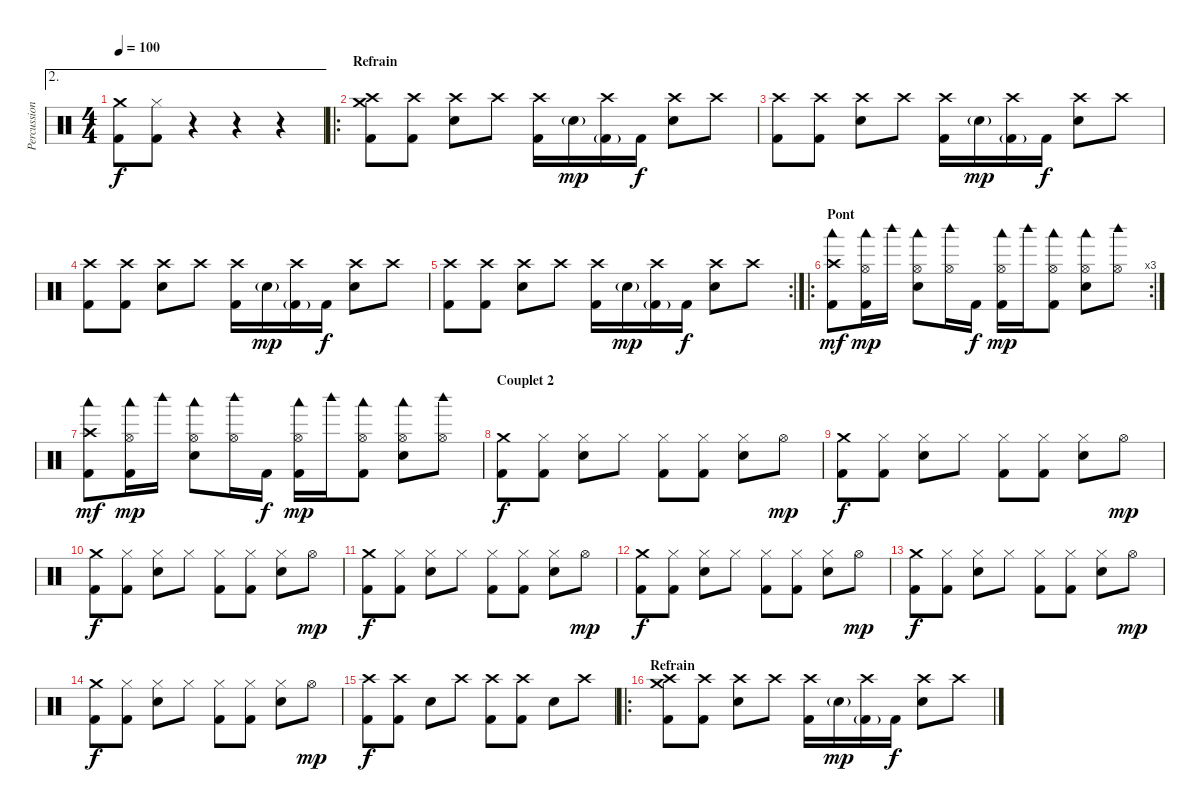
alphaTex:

\track ("Percussions" "Percussion") {instrument percussion}
\staff {score}
\articulation defaults
\ae 2
\ts (4 4)
\tempo 100
\clef neutral
\ks c
("Crash medium (hit)" "Kick (hit) 2").8{dy f} ("Hi-Hat (closed)" "Kick (hit) 2").8 r.4 r.4 r.4 |
\ro
\section ("" "Refrain")
("Crash high (hit)" "Crash medium (hit)" "Kick (hit) 2").8 ("Crash high (hit)" "Kick (hit) 2").8 ("Crash high (hit)" "Electric Snare (hit)").8 "Crash high (hit)".8 ("Crash high (hit)" "Kick (hit) 2").16 "Electric Snare (hit)"{g}.16{dy mp} ("Crash high (hit)" "Kick (hit) 2"{g}).16 "Kick (hit) 2".16{dy f} ("Crash high (hit)" "Electric Snare (hit)").8 "Crash high (hit)".8 |
("Crash high (hit)" "Kick (hit) 2").8 ("Crash high (hit)" "Kick (hit) 2").8 ("Crash high (hit)" "Electric Snare (hit)").8 "Crash high (hit)".8 ("Crash high (hit)" "Kick (hit) 2").16 "Electric Snare (hit)"{g}.16{dy mp} ("Crash high (hit)" "Kick (hit) 2"{g}).16 "Kick (hit) 2".16{dy f} ("Crash high (hit)" "Electric Snare (hit)").8 "Crash high (hit)".8 |
("Crash high (hit)" "Kick (hit) 2").8 ("Crash high (hit)" "Kick (hit) 2").8 ("Crash high (hit)" "Electric Snare (hit)").8 "Crash high (hit)".8 ("Crash high (hit)" "Kick (hit) 2").16 "Electric Snare (hit)"{g}.16{dy mp} ("Crash high (hit)" "Kick (hit) 2"{g}).16 "Kick (hit) 2".16{dy f} ("Crash high (hit)" "Electric Snare (hit)").8 "Crash high (hit)".8 |
\rc 2
("Crash high (hit)" "Kick (hit) 2").8 ("Crash high (hit)" "Kick (hit) 2").8 ("Crash high (hit)" "Electric Snare (hit)").8 "Crash high (hit)".8 ("Crash high (hit)" "Kick (hit) 2").16 "Electric Snare (hit)"{g}.16{dy mp} ("Crash high (hit)" "Kick (hit) 2"{g}).16 "Kick (hit) 2".16{dy f} ("Crash high (hit)" "Electric Snare (hit)").8 "Crash high (hit)".8 |
\ro
\rc 3
\section ("" "Pont")
("Woodblock low (hit)" "Crash high (hit)" "Kick (hit) 2").8{dy mf} ("Woodblock low (hit)" "Hi-Hat (open)" "Kick (hit) 2").16{dy mp} "Woodblock high (hit)".16 ("Woodblock low (hit)" "Hi-Hat (open)" "Electric Snare (hit)").8 ("Woodblock high (hit)" "Hi-Hat (open)").16 "Kick (hit) 2".16{dy f} ("Woodblock low (hit)" "Hi-Hat (open)" "Kick (hit) 2").16{dy mp} "Woodblock high (hit)".16 ("Woodblock low (hit)" "Hi-Hat (open)" "Kick (hit) 2").8 ("Woodblock low (hit)" "Hi-Hat (open)" "Electric Snare (hit)").8 ("Woodblock high (hit)" "Hi-Hat (open)").8 |
("Woodblock low (hit)" "Crash high (hit)" "Kick (hit) 2").8{dy mf} ("Woodblock low (hit)" "Hi-Hat (open)" "Kick (hit) 2").16{dy mp} "Woodblock high (hit)".16 ("Woodblock low (hit)" "Hi-Hat (open)" "Electric Snare (hit)").8 ("Woodblock high (hit)" "Hi-Hat (open)").16 "Kick (hit) 2".16{dy f} ("Woodblock low (hit)" "Hi-Hat (open)" "Kick (hit) 2").16{dy mp} "Woodblock high (hit)".16 ("Woodblock low (hit)" "Hi-Hat (open)" "Kick (hit) 2").8 ("Woodblock low (hit)" "Hi-Hat (open)" "Electric Snare (hit)").8 ("Woodblock high (hit)" "Hi-Hat (open)").8 |
\section ("" "Couplet 2")
("Crash medium (hit)" "Kick (hit) 2").8{dy f} ("Hi-Hat (closed)" "Kick (hit) 2").8 ("Hi-Hat (closed)" "Electric Snare (hit)").8 "Hi-Hat (closed)".8 ("Hi-Hat (closed)" "Kick (hit) 2").8 ("Hi-Hat (closed)" "Kick (hit) 2").8 ("Hi-Hat (closed)" "Electric Snare (hit)").8 "Hi-Hat (open)".8{dy mp} |
("Crash medium (hit)" "Kick (hit) 2").8{dy f} ("Hi-Hat (closed)" "Kick (hit) 2").8 ("Hi-Hat (closed)" "Electric Snare (hit)").8 "Hi-Hat (closed)".8 ("Hi-Hat (closed)" "Kick (hit) 2").8 ("Hi-Hat (closed)" "Kick (hit) 2").8 ("Hi-Hat (closed)" "Electric Snare (hit)").8 "Hi-Hat (open)".8{dy mp} |
("Crash medium (hit)" "Kick (hit) 2").8{dy f} ("Hi-Hat (closed)" "Kick (hit) 2").8 ("Hi-Hat (closed)" "Electric Snare (hit)").8 "Hi-Hat (closed)".8 ("Hi-Hat (closed)" "Kick (hit) 2").8 ("Hi-Hat (closed)" "Kick (hit) 2").8 ("Hi-Hat (closed)" "Electric Snare (hit)").8 "Hi-Hat (open)".8{dy mp} |
("Crash medium (hit)" "Kick (hit) 2").8{dy f} ("Hi-Hat (closed)" "Kick (hit) 2").8 ("Hi-Hat (closed)" "Electric Snare (hit)").8 "Hi-Hat (closed)".8 ("Hi-Hat (closed)" "Kick (hit) 2").8 ("Hi-Hat (closed)" "Kick (hit) 2").8 ("Hi-Hat (closed)" "Electric Snare (hit)").8 "Hi-Hat (open)".8{dy mp} |
("Crash medium (hit)" "Kick (hit) 2").8{dy f} ("Hi-Hat (closed)" "Kick (hit) 2").8 ("Hi-Hat (closed)" "Electric Snare (hit)").8 "Hi-Hat (closed)".8 ("Hi-Hat (closed)" "Kick (hit) 2").8 ("Hi-Hat (closed)" "Kick (hit) 2").8 ("Hi-Hat (closed)" "Electric Snare (hit)").8 "Hi-Hat (open)".8{dy mp} |
("Crash medium (hit)" "Kick (hit) 2").8{dy f} ("Hi-Hat (closed)" "Kick (hit) 2").8 ("Hi-Hat (closed)" "Electric Snare (hit)").8 "Hi-Hat (closed)".8 ("Hi-Hat (closed)" "Kick (hit) 2").8 ("Hi-Hat (closed)" "Kick (hit) 2").8 ("Hi-Hat (closed)" "Electric Snare (hit)").8 "Hi-Hat (open)".8{dy mp} |
("Crash medium (hit)" "Kick (hit) 2").8{dy f} ("Hi-Hat (closed)" "Kick (hit) 2").8 ("Hi-Hat (closed)" "Electric Snare (hit)").8 "Hi-Hat (closed)".8 ("Hi-Hat (closed)" "Kick (hit) 2").8 ("Hi-Hat (closed)" "Kick (hit) 2").8 ("Hi-Hat (closed)" "Electric Snare (hit)").8 "Hi-Hat (open)".8{dy mp} |
("Crash high (hit)" "Kick (hit) 2").8{dy f} ("Crash high (hit)" "Kick (hit) 2").8 "Electric Snare (hit)".8 "Crash high (hit)".8 ("Crash high (hit)" "Kick (hit) 2").8 ("Crash high (hit)" "Kick (hit) 2").8 "Electric Snare (hit)".8 "Crash high (hit)".8 |
\ro
\section ("" "Refrain")
("Crash high (hit)" "Crash medium (hit)" "Kick (hit) 2").8 ("Crash high (hit)" "Kick (hit) 2").8 ("Crash high (hit)" "Electric Snare (hit)").8 "Crash high (hit)".8 ("Crash high (hit)" "Kick (hit) 2").16 "Electric Snare (hit)"{g}.16{dy mp} ("Crash high (hit)" "Kick (hit) 2"{g}).16 "Kick (hit) 2".16{dy f} ("Crash high (hit)" "Electric Snare (hit)").8 "Crash high (hit)".8
